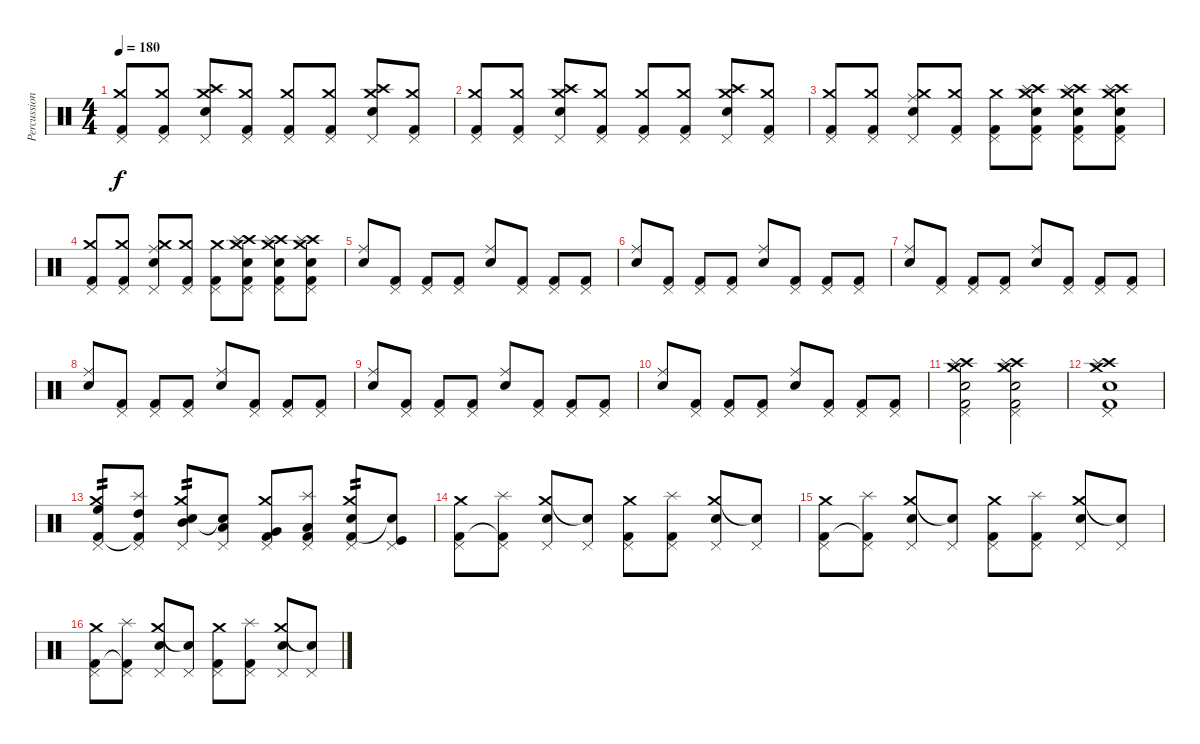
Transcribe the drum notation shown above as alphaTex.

\track ("Percussion" "Percussion") {instrument percussion}
\staff
\articulation defaults
\ts (4 4)
\tempo 180
\clef neutral
\ks c
("Pedal Hi-Hat (hit)" "Crash medium (hit)" "Kick (hit) 2").8{dy f} ("Pedal Hi-Hat (hit)" "Crash medium (hit)" "Kick (hit) 2").8 ("Pedal Hi-Hat (hit)" "Crash high (hit)" "Crash medium (hit)" "Snare (hit) 2").8 ("Pedal Hi-Hat (hit)" "Crash medium (hit)" "Kick (hit) 2").8 ("Pedal Hi-Hat (hit)" "Crash medium (hit)" "Kick (hit) 2").8 ("Pedal Hi-Hat (hit)" "Crash medium (hit)" "Kick (hit) 2").8 ("Pedal Hi-Hat (hit)" "Crash high (hit)" "Crash medium (hit)" "Snare (hit) 2").8 ("Pedal Hi-Hat (hit)" "Crash medium (hit)" "Kick (hit) 2").8 |
("Pedal Hi-Hat (hit)" "Crash medium (hit)" "Kick (hit) 2").8 ("Pedal Hi-Hat (hit)" "Crash medium (hit)" "Kick (hit) 2").8 ("Pedal Hi-Hat (hit)" "Crash high (hit)" "Crash medium (hit)" "Snare (hit) 2").8 ("Pedal Hi-Hat (hit)" "Crash medium (hit)" "Kick (hit) 2").8 ("Pedal Hi-Hat (hit)" "Crash medium (hit)" "Kick (hit) 2").8 ("Pedal Hi-Hat (hit)" "Crash medium (hit)" "Kick (hit) 2").8 ("Pedal Hi-Hat (hit)" "Crash high (hit)" "Crash medium (hit)" "Snare (hit) 2").8 ("Pedal Hi-Hat (hit)" "Crash medium (hit)" "Kick (hit) 2").8 |
("Pedal Hi-Hat (hit)" "Crash medium (hit)" "Kick (hit) 2").8 ("Pedal Hi-Hat (hit)" "Crash medium (hit)" "Kick (hit) 2").8 ("Pedal Hi-Hat (hit)" "Ride (middle)" "Crash medium (hit)" "Snare (hit) 2").8 ("Pedal Hi-Hat (hit)" "Crash medium (hit)" "Kick (hit) 2").8 ("Pedal Hi-Hat (hit)" "Crash medium (hit)" "Kick (hit) 2").8 ("Pedal Hi-Hat (hit)" "Crash high (hit)" "Crash medium (hit)" "Splash (hit)" "Snare (hit) 2" "Kick (hit) 2").8 ("Pedal Hi-Hat (hit)" "Crash high (hit)" "Crash medium (hit)" "Splash (hit)" "Snare (hit) 2" "Kick (hit) 2").8 ("Pedal Hi-Hat (hit)" "Crash high (hit)" "Crash medium (hit)" "Splash (hit)" "Snare (hit) 2" "Kick (hit) 2").8 |
("Pedal Hi-Hat (hit)" "Crash medium (hit)" "Kick (hit) 2").8 ("Pedal Hi-Hat (hit)" "Crash medium (hit)" "Kick (hit) 2").8 ("Pedal Hi-Hat (hit)" "Ride (middle)" "Crash medium (hit)" "Snare (hit) 2").8 ("Pedal Hi-Hat (hit)" "Crash medium (hit)" "Kick (hit) 2").8 ("Pedal Hi-Hat (hit)" "Crash medium (hit)" "Kick (hit) 2").8 ("Pedal Hi-Hat (hit)" "Crash high (hit)" "Crash medium (hit)" "Splash (hit)" "Snare (hit) 2" "Kick (hit) 2").8 ("Pedal Hi-Hat (hit)" "Crash high (hit)" "Crash medium (hit)" "Splash (hit)" "Snare (hit) 2" "Kick (hit) 2").8 ("Pedal Hi-Hat (hit)" "Crash high (hit)" "Crash medium (hit)" "Splash (hit)" "Snare (hit) 2" "Kick (hit) 2").8 |
("Ride (middle)" "Snare (hit) 2").8 ("Pedal Hi-Hat (hit)" "Kick (hit) 2").8 ("Pedal Hi-Hat (hit)" "Kick (hit) 2").8 ("Pedal Hi-Hat (hit)" "Kick (hit) 2").8 ("Ride (middle)" "Snare (hit) 2").8 ("Pedal Hi-Hat (hit)" "Kick (hit) 2").8 ("Pedal Hi-Hat (hit)" "Kick (hit) 2").8 ("Pedal Hi-Hat (hit)" "Kick (hit) 2").8 |
("Ride (middle)" "Snare (hit) 2").8 ("Pedal Hi-Hat (hit)" "Kick (hit) 2").8 ("Pedal Hi-Hat (hit)" "Kick (hit) 2").8 ("Pedal Hi-Hat (hit)" "Kick (hit) 2").8 ("Ride (middle)" "Snare (hit) 2").8 ("Pedal Hi-Hat (hit)" "Kick (hit) 2").8 ("Pedal Hi-Hat (hit)" "Kick (hit) 2").8 ("Pedal Hi-Hat (hit)" "Kick (hit) 2").8 |
("Ride (middle)" "Snare (hit) 2").8 ("Pedal Hi-Hat (hit)" "Kick (hit) 2").8 ("Pedal Hi-Hat (hit)" "Kick (hit) 2").8 ("Pedal Hi-Hat (hit)" "Kick (hit) 2").8 ("Ride (middle)" "Snare (hit) 2").8 ("Pedal Hi-Hat (hit)" "Kick (hit) 2").8 ("Pedal Hi-Hat (hit)" "Kick (hit) 2").8 ("Pedal Hi-Hat (hit)" "Kick (hit) 2").8 |
("Ride (middle)" "Snare (hit) 2").8 ("Pedal Hi-Hat (hit)" "Kick (hit) 2").8 ("Pedal Hi-Hat (hit)" "Kick (hit) 2").8 ("Pedal Hi-Hat (hit)" "Kick (hit) 2").8 ("Ride (middle)" "Snare (hit) 2").8 ("Pedal Hi-Hat (hit)" "Kick (hit) 2").8 ("Pedal Hi-Hat (hit)" "Kick (hit) 2").8 ("Pedal Hi-Hat (hit)" "Kick (hit) 2").8 |
("Ride (middle)" "Snare (hit) 2").8 ("Pedal Hi-Hat (hit)" "Kick (hit) 2").8 ("Pedal Hi-Hat (hit)" "Kick (hit) 2").8 ("Pedal Hi-Hat (hit)" "Kick (hit) 2").8 ("Ride (middle)" "Snare (hit) 2").8 ("Pedal Hi-Hat (hit)" "Kick (hit) 2").8 ("Pedal Hi-Hat (hit)" "Kick (hit) 2").8 ("Pedal Hi-Hat (hit)" "Kick (hit) 2").8 |
("Ride (middle)" "Snare (hit) 2").8 ("Pedal Hi-Hat (hit)" "Kick (hit) 2").8 ("Pedal Hi-Hat (hit)" "Kick (hit) 2").8 ("Pedal Hi-Hat (hit)" "Kick (hit) 2").8 ("Ride (middle)" "Snare (hit) 2").8 ("Pedal Hi-Hat (hit)" "Kick (hit) 2").8 ("Pedal Hi-Hat (hit)" "Kick (hit) 2").8 ("Pedal Hi-Hat (hit)" "Kick (hit) 2").8 |
("Pedal Hi-Hat (hit)" "Crash high (hit)" "Crash medium (hit)" "Splash (hit)" "Snare (hit) 2" "Kick (hit) 2").2 ("Pedal Hi-Hat (hit)" "Crash high (hit)" "Crash medium (hit)" "Splash (hit)" "Snare (hit) 2" "Kick (hit) 2").2 |
("Pedal Hi-Hat (hit)" "Crash high (hit)" "Crash medium (hit)" "Splash (hit)" "Snare (hit) 2" "Kick (hit) 2").1 |
("Pedal Hi-Hat (hit)" "Crash medium (hit)" "High Floor Tom (hit)" "Kick (hit) 2").8{tp 2} ("Pedal Hi-Hat (hit)" "Splash (hit)" "High Tom (hit)" "Kick (hit) 2"{t}).8 ("Pedal Hi-Hat (hit)" "Crash medium (hit)" "Mid Tom (hit)" "Snare (hit) 2").8{tp 2} ("Pedal Hi-Hat (hit)" "Low Tom (hit)" "Snare (hit) 2"{t}).8 ("Pedal Hi-Hat (hit)" "Crash medium (hit)" "Very Low Tom (hit)" "Kick (hit) 2").8 ("Pedal Hi-Hat (hit)" "Splash (hit)" "Low Floor Tom (hit)" "Kick (hit) 2").8 ("Pedal Hi-Hat (hit)" "Crash medium (hit)" "Kick (hit) 2" "Snare (hit) 2").8{tp 2} ("Pedal Hi-Hat (hit)" "Kick (hit)" "Snare (hit) 2"{t}).8 |
("Pedal Hi-Hat (hit)" "Crash medium (hit)" "Kick (hit) 2").8 ("Pedal Hi-Hat (hit)" "Splash (hit)" "Kick (hit) 2"{t}).8 ("Pedal Hi-Hat (hit)" "Crash medium (hit)" "Snare (hit) 2").8 ("Pedal Hi-Hat (hit)" "Snare (hit) 2"{t}).8 ("Pedal Hi-Hat (hit)" "Crash medium (hit)" "Kick (hit) 2").8 ("Pedal Hi-Hat (hit)" "Splash (hit)" "Kick (hit) 2").8 ("Pedal Hi-Hat (hit)" "Crash medium (hit)" "Snare (hit) 2").8 ("Pedal Hi-Hat (hit)" "Snare (hit) 2"{t}).8 |
("Pedal Hi-Hat (hit)" "Crash medium (hit)" "Kick (hit) 2").8 ("Pedal Hi-Hat (hit)" "Splash (hit)" "Kick (hit) 2"{t}).8 ("Pedal Hi-Hat (hit)" "Crash medium (hit)" "Snare (hit) 2").8 ("Pedal Hi-Hat (hit)" "Snare (hit) 2"{t}).8 ("Pedal Hi-Hat (hit)" "Crash medium (hit)" "Kick (hit) 2").8 ("Pedal Hi-Hat (hit)" "Splash (hit)" "Kick (hit) 2").8 ("Pedal Hi-Hat (hit)" "Crash medium (hit)" "Snare (hit) 2").8 ("Pedal Hi-Hat (hit)" "Snare (hit) 2"{t}).8 |
("Pedal Hi-Hat (hit)" "Crash medium (hit)" "Kick (hit) 2").8 ("Pedal Hi-Hat (hit)" "Splash (hit)" "Kick (hit) 2"{t}).8 ("Pedal Hi-Hat (hit)" "Crash medium (hit)" "Snare (hit) 2").8 ("Pedal Hi-Hat (hit)" "Snare (hit) 2"{t}).8 ("Pedal Hi-Hat (hit)" "Crash medium (hit)" "Kick (hit) 2").8 ("Pedal Hi-Hat (hit)" "Splash (hit)" "Kick (hit) 2").8 ("Pedal Hi-Hat (hit)" "Crash medium (hit)" "Snare (hit) 2").8 ("Pedal Hi-Hat (hit)" "Snare (hit) 2"{t}).8
